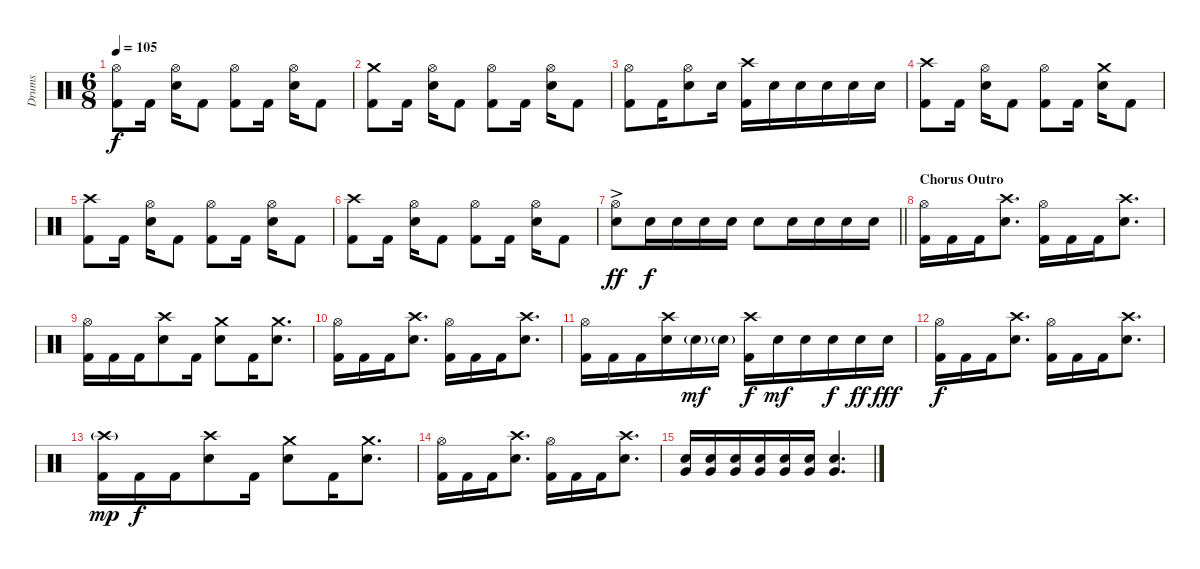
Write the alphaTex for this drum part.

\track ("Drums" "Drums") {instrument percussion}
\staff {score}
\articulation defaults
\ts (6 8)
\tempo 105
\clef neutral
\ks c
("Hi-Hat (open)" "Kick (hit) 2").8{dy f} "Kick (hit) 2".16{beam split} ("Hi-Hat (open)" "Electric Snare (hit)").16 "Kick (hit) 2".8 ("Hi-Hat (open)" "Kick (hit) 2").8 "Kick (hit) 2".16{beam split} ("Hi-Hat (open)" "Electric Snare (hit)").16 "Kick (hit) 2".8 |
("Crash medium (hit)" "Kick (hit) 2").8 "Kick (hit) 2".16{beam split} ("Hi-Hat (open)" "Electric Snare (hit)").16 "Kick (hit) 2".8 ("Hi-Hat (open)" "Kick (hit) 2").8 "Kick (hit) 2".16{beam split} ("Hi-Hat (open)" "Electric Snare (hit)").16 "Kick (hit) 2".8 |
("Hi-Hat (open)" "Kick (hit) 2").8 "Kick (hit) 2".16 ("Hi-Hat (open)" "Electric Snare (hit)").8 "Electric Snare (hit)".16 ("Crash high (hit)" "Kick (hit) 2").16 "Electric Snare (hit)".16 "Electric Snare (hit)".16 "Electric Snare (hit)".16 "Electric Snare (hit)".16 "Electric Snare (hit)".16 |
("Crash high (hit)" "Kick (hit) 2").8 "Kick (hit) 2".16{beam split} ("Hi-Hat (open)" "Electric Snare (hit)").16 "Kick (hit) 2".8 ("Hi-Hat (open)" "Kick (hit) 2").8 "Kick (hit) 2".16{beam split} ("Crash medium (hit)" "Electric Snare (hit)").16 "Kick (hit) 2".8 |
("Crash high (hit)" "Kick (hit) 2").8 "Kick (hit) 2".16{beam split} ("Hi-Hat (open)" "Electric Snare (hit)").16 "Kick (hit) 2".8 ("Hi-Hat (open)" "Kick (hit) 2").8 "Kick (hit) 2".16{beam split} ("Hi-Hat (open)" "Electric Snare (hit)").16 "Kick (hit) 2".8 |
("Crash high (hit)" "Kick (hit) 2").8 "Kick (hit) 2".16{beam split} ("Hi-Hat (open)" "Electric Snare (hit)").16 "Kick (hit) 2".8 ("Hi-Hat (open)" "Kick (hit) 2").8 "Kick (hit) 2".16{beam split} ("Hi-Hat (open)" "Electric Snare (hit)").16 "Kick (hit) 2".8 |
\barLineRight lightlight
("Hi-Hat (open)" "Electric Snare (hit)"{ac}).8{dy ff} "Electric Snare (hit)".16{dy f} "Electric Snare (hit)".16 "Electric Snare (hit)".16 "Electric Snare (hit)".16 "Electric Snare (hit)".8 "Electric Snare (hit)".16 "Electric Snare (hit)".16 "Electric Snare (hit)".16 "Electric Snare (hit)".16 |
\section ("" "Chorus Outro")
("Hi-Hat (open)" "Kick (hit) 2").16 "Kick (hit) 2".16 "Kick (hit) 2".16 ("Crash high (hit)" "Electric Snare (hit)").8{d} ("Hi-Hat (open)" "Kick (hit) 2").16 "Kick (hit) 2".16 "Kick (hit) 2".16 ("Crash high (hit)" "Electric Snare (hit)").8{d} |
("Hi-Hat (open)" "Kick (hit) 2").16 "Kick (hit) 2".16 "Kick (hit) 2".16 ("Crash high (hit)" "Electric Snare (hit)").8 "Kick (hit) 2".16 ("Crash medium (hit)" "Electric Snare (hit)").8 "Kick (hit) 2".16 ("Crash medium (hit)" "Electric Snare (hit)").8{d} |
("Hi-Hat (open)" "Kick (hit) 2").16 "Kick (hit) 2".16 "Kick (hit) 2".16 ("Crash high (hit)" "Electric Snare (hit)").8{d} ("Hi-Hat (open)" "Kick (hit) 2").16 "Kick (hit) 2".16 "Kick (hit) 2".16 ("Crash high (hit)" "Electric Snare (hit)").8{d} |
("Hi-Hat (open)" "Kick (hit) 2").16 "Kick (hit) 2".16 "Kick (hit) 2".16 ("Crash high (hit)" "Electric Snare (hit)").16 "Electric Snare (hit)"{g}.16{dy mf} "Electric Snare (hit)"{g}.16 ("Crash high (hit)" "Kick (hit) 2").16{dy f} "Electric Snare (hit)".16{dy mf} "Electric Snare (hit)".16 "Electric Snare (hit)".16{dy f} "Electric Snare (hit)".16{dy ff} "Electric Snare (hit)".16{dy fff} |
("Hi-Hat (open)" "Kick (hit) 2").16{dy f} "Kick (hit) 2".16 "Kick (hit) 2".16 ("Crash high (hit)" "Electric Snare (hit)").8{d} ("Hi-Hat (open)" "Kick (hit) 2").16 "Kick (hit) 2".16 "Kick (hit) 2".16 ("Crash high (hit)" "Electric Snare (hit)").8{d} |
("Crash high (hit)"{g} "Kick (hit) 2").16{dy mp} "Kick (hit) 2".16{dy f} "Kick (hit) 2".16 ("Crash high (hit)" "Electric Snare (hit)").8 "Kick (hit) 2".16 ("Crash medium (hit)" "Electric Snare (hit)").8 "Kick (hit) 2".16 ("Crash medium (hit)" "Electric Snare (hit)").8{d} |
("Hi-Hat (open)" "Kick (hit) 2").16 "Kick (hit) 2".16 "Kick (hit) 2".16 ("Crash high (hit)" "Electric Snare (hit)").8{d} ("Hi-Hat (open)" "Kick (hit) 2").16 "Kick (hit) 2".16 "Kick (hit) 2".16 ("Crash high (hit)" "Electric Snare (hit)").8{d} |
("Very Low Tom (hit)" "Electric Snare (hit)").16 ("Very Low Tom (hit)" "Electric Snare (hit)").16 ("Very Low Tom (hit)" "Electric Snare (hit)").16 ("Very Low Tom (hit)" "Electric Snare (hit)").16 ("Very Low Tom (hit)" "Electric Snare (hit)").16 ("Very Low Tom (hit)" "Electric Snare (hit)").16 ("Very Low Tom (hit)" "Electric Snare (hit)").4{d}
